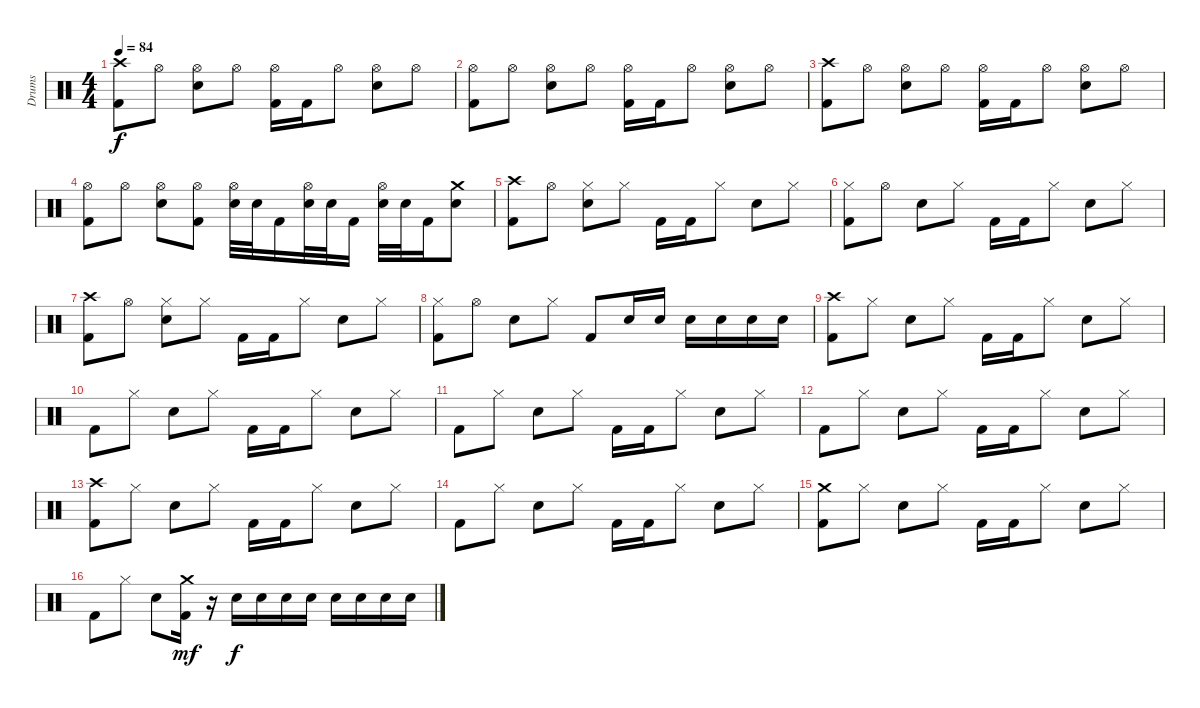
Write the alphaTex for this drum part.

\track ("Drums" "Drums") {instrument percussion}
\staff {score}
\articulation defaults
\ts (4 4)
\tempo 84
\clef neutral
\ks c
("Kick (hit) 2" "Crash high (hit)").8{dy f} "Hi-Hat (open)".8 ("Snare (hit) 2" "Hi-Hat (open)").8 "Hi-Hat (open)".8 ("Kick (hit) 2" "Hi-Hat (open)").16 "Kick (hit) 2".16 "Hi-Hat (open)".8 ("Snare (hit) 2" "Hi-Hat (open)").8 "Hi-Hat (open)".8 |
("Kick (hit) 2" "Hi-Hat (open)").8 "Hi-Hat (open)".8 ("Snare (hit) 2" "Hi-Hat (open)").8 "Hi-Hat (open)".8 ("Kick (hit) 2" "Hi-Hat (open)").16 "Kick (hit) 2".16 "Hi-Hat (open)".8 ("Snare (hit) 2" "Hi-Hat (open)").8 "Hi-Hat (open)".8 |
("Kick (hit) 2" "Crash high (hit)").8 "Hi-Hat (open)".8 ("Snare (hit) 2" "Hi-Hat (open)").8 "Hi-Hat (open)".8 ("Kick (hit) 2" "Hi-Hat (open)").16 "Kick (hit) 2".16 "Hi-Hat (open)".8 ("Snare (hit) 2" "Hi-Hat (open)").8 "Hi-Hat (open)".8 |
("Kick (hit) 2" "Hi-Hat (open)").8 "Hi-Hat (open)".8 ("Snare (hit) 2" "Hi-Hat (open)").8 ("Kick (hit) 2" "Hi-Hat (open)").8 ("Snare (hit) 2" "Hi-Hat (open)").32 "Snare (hit) 2".32 "Kick (hit) 2".16 ("Snare (hit) 2" "Hi-Hat (open)").32 "Snare (hit) 2".32 "Kick (hit) 2".16 ("Snare (hit) 2" "Hi-Hat (open)").32 "Snare (hit) 2".32 "Kick (hit) 2".16 ("Snare (hit) 2" "Crash medium (hit)").8 |
("Kick (hit) 2" "Crash high (hit)").8 "Hi-Hat (open)".8 ("Snare (hit) 2" "Hi-Hat (closed)").8 "Hi-Hat (closed)".8 "Kick (hit) 2".16 "Kick (hit) 2".16 "Hi-Hat (closed)".8 "Snare (hit) 2".8 "Hi-Hat (closed)".8 |
("Kick (hit) 2" "Hi-Hat (closed)").8 "Hi-Hat (open)".8 "Snare (hit) 2".8 "Hi-Hat (closed)".8 "Kick (hit) 2".16 "Kick (hit) 2".16 "Hi-Hat (closed)".8 "Snare (hit) 2".8 "Hi-Hat (closed)".8 |
("Kick (hit) 2" "Crash high (hit)").8 "Hi-Hat (open)".8 ("Snare (hit) 2" "Hi-Hat (closed)").8 "Hi-Hat (closed)".8 "Kick (hit) 2".16 "Kick (hit) 2".16 "Hi-Hat (closed)".8 "Snare (hit) 2".8 "Hi-Hat (closed)".8 |
("Kick (hit) 2" "Hi-Hat (closed)").8 "Hi-Hat (open)".8 "Snare (hit) 2".8 "Hi-Hat (closed)".8 "Kick (hit) 2".8 "Snare (hit) 2".16 "Snare (hit) 2".16 "Snare (hit) 2".16 "Snare (hit) 2".16 "Snare (hit) 2".16 "Snare (hit) 2".16 |
("Kick (hit) 2" "Crash high (hit)").8 "Hi-Hat (closed)".8 "Snare (hit) 2".8 "Hi-Hat (closed)".8 "Kick (hit) 2".16 "Kick (hit) 2".16 "Hi-Hat (closed)".8 "Snare (hit) 2".8 "Hi-Hat (closed)".8 |
"Kick (hit) 2".8 "Hi-Hat (closed)".8 "Snare (hit) 2".8 "Hi-Hat (closed)".8 "Kick (hit) 2".16 "Kick (hit) 2".16 "Hi-Hat (closed)".8 "Snare (hit) 2".8 "Hi-Hat (closed)".8 |
"Kick (hit) 2".8 "Hi-Hat (closed)".8 "Snare (hit) 2".8 "Hi-Hat (closed)".8 "Kick (hit) 2".16 "Kick (hit) 2".16 "Hi-Hat (closed)".8 "Snare (hit) 2".8 "Hi-Hat (closed)".8 |
"Kick (hit) 2".8 "Hi-Hat (closed)".8 "Snare (hit) 2".8 "Hi-Hat (closed)".8 "Kick (hit) 2".16 "Kick (hit) 2".16 "Hi-Hat (closed)".8 "Snare (hit) 2".8 "Hi-Hat (closed)".8 |
("Kick (hit) 2" "Crash high (hit)").8 "Hi-Hat (closed)".8 "Snare (hit) 2".8 "Hi-Hat (closed)".8 "Kick (hit) 2".16 "Kick (hit) 2".16 "Hi-Hat (closed)".8 "Snare (hit) 2".8 "Hi-Hat (closed)".8 |
"Kick (hit) 2".8 "Hi-Hat (closed)".8 "Snare (hit) 2".8 "Hi-Hat (closed)".8 "Kick (hit) 2".16 "Kick (hit) 2".16 "Hi-Hat (closed)".8 "Snare (hit) 2".8 "Hi-Hat (closed)".8 |
("Kick (hit) 2" "Crash medium (hit)").8 "Hi-Hat (closed)".8 "Snare (hit) 2".8 "Hi-Hat (closed)".8 "Kick (hit) 2".16 "Kick (hit) 2".16 "Hi-Hat (closed)".8 "Snare (hit) 2".8 "Hi-Hat (closed)".8 |
"Kick (hit) 2".8 "Hi-Hat (closed)".8 "Snare (hit) 2".8 ("Kick (hit) 2" "Crash medium (hit)").16{dy mf} r.16{volume 5} "Snare (hit) 2".16{dy f volume 13} "Snare (hit) 2".16 "Snare (hit) 2".16 "Snare (hit) 2".16 "Snare (hit) 2".16 "Snare (hit) 2".16 "Snare (hit) 2".16 "Snare (hit) 2".16
